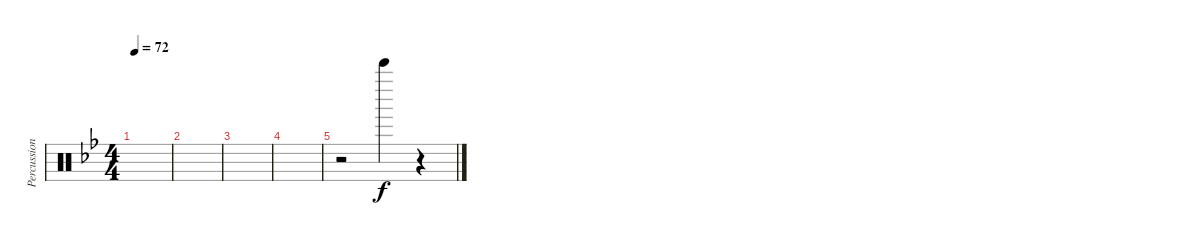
\track ("Percussion" "Percussion") {instrument percussion}
\staff {score}
\articulation defaults
\ts (4 4)
\tempo 72
\clef neutral
\ks bb
|
|
|
|
r.2 "Bell Tree (hit)".4 r.4
